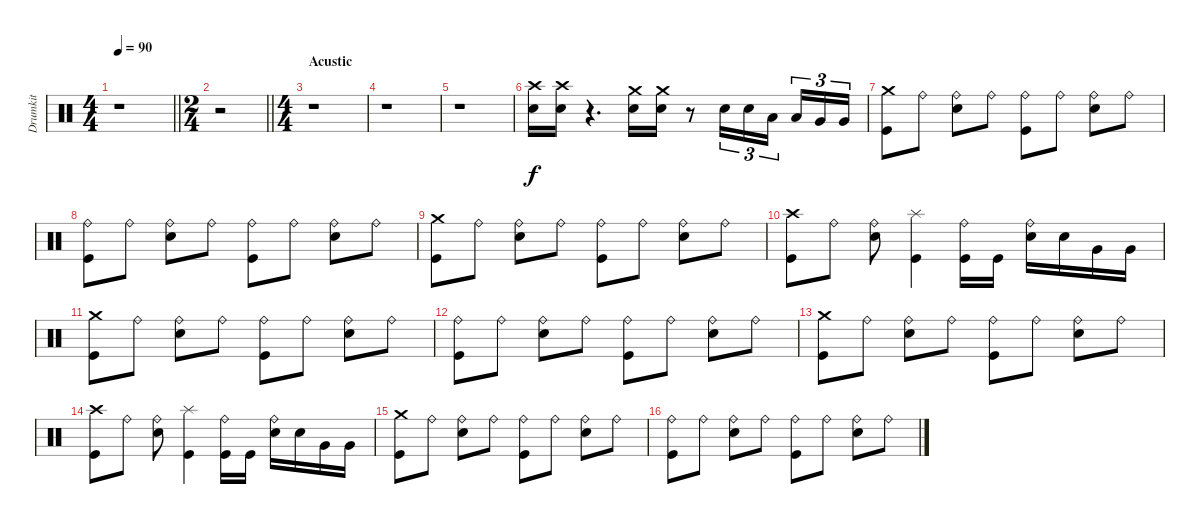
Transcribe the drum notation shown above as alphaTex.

\track ("Drumkit" "Drumkit") {instrument percussion}
\staff {score}
\articulation defaults
\ts (4 4)
\tempo 90
\clef neutral
\barLineRight lightlight
\ks c
r.1{dy f} |
\ts (2 4)
\barLineRight lightlight
r.2 |
\ts (4 4)
\section ("" "Acustic")
r.1 |
r.1 |
r.1 |
("Crash high (hit)" "Snare (hit) 2").16 ("Crash high (hit)" "Snare (hit) 2").16 r.4{d} ("Crash medium (hit)" "Snare (hit) 2").16 ("Crash medium (hit)" "Snare (hit) 2").16 r.8 "Snare (hit) 2".16{tu (3 2)} "Snare (hit) 2".16{tu (3 2)} "Low Tom (hit)".16{tu (3 2)} "Low Tom (hit)".16{tu (3 2)} "Very Low Tom (hit)".16{tu (3 2)} "Very Low Tom (hit)".16{tu (3 2)} |
("Crash medium (hit)" "Kick (hit)").8 "Ride (bell)".8 ("Ride (bell)" "Snare (hit) 2").8 "Ride (bell)".8 ("Ride (bell)" "Kick (hit)").8 "Ride (bell)".8 ("Ride (bell)" "Snare (hit) 2").8 "Ride (bell)".8 |
("Ride (bell)" "Kick (hit)").8 "Ride (bell)".8 ("Ride (bell)" "Snare (hit) 2").8 "Ride (bell)".8 ("Ride (bell)" "Kick (hit)").8 "Ride (bell)".8 ("Ride (bell)" "Snare (hit) 2").8 "Ride (bell)".8 |
("Crash medium (hit)" "Kick (hit)").8 "Ride (bell)".8 ("Ride (bell)" "Snare (hit) 2").8 "Ride (bell)".8 ("Ride (bell)" "Kick (hit)").8 "Ride (bell)".8 ("Ride (bell)" "Snare (hit) 2").8 "Ride (bell)".8 |
("Crash high (hit)" "Kick (hit)").8 "Ride (bell)".8 ("Ride (bell)" "Snare (hit) 2").8 ("Splash (hit)" "Kick (hit)").4 ("Ride (bell)" "Kick (hit)").16 "Kick (hit)".16 ("Ride (bell)" "Snare (hit) 2").16 "Snare (hit) 2".16 "Very Low Tom (hit)".16 "Very Low Tom (hit)".16 |
("Crash medium (hit)" "Kick (hit)").8 "Ride (bell)".8 ("Ride (bell)" "Snare (hit) 2").8 "Ride (bell)".8 ("Ride (bell)" "Kick (hit)").8 "Ride (bell)".8 ("Ride (bell)" "Snare (hit) 2").8 "Ride (bell)".8 |
("Ride (bell)" "Kick (hit)").8 "Ride (bell)".8 ("Ride (bell)" "Snare (hit) 2").8 "Ride (bell)".8 ("Ride (bell)" "Kick (hit)").8 "Ride (bell)".8 ("Ride (bell)" "Snare (hit) 2").8 "Ride (bell)".8 |
("Crash medium (hit)" "Kick (hit)").8 "Ride (bell)".8 ("Ride (bell)" "Snare (hit) 2").8 "Ride (bell)".8 ("Ride (bell)" "Kick (hit)").8 "Ride (bell)".8 ("Ride (bell)" "Snare (hit) 2").8 "Ride (bell)".8 |
("Crash high (hit)" "Kick (hit)").8 "Ride (bell)".8 ("Ride (bell)" "Snare (hit) 2").8 ("Splash (hit)" "Kick (hit)").4 ("Ride (bell)" "Kick (hit)").16 "Kick (hit)".16 ("Ride (bell)" "Snare (hit) 2").16 "Snare (hit) 2".16 "Very Low Tom (hit)".16 "Very Low Tom (hit)".16 |
("Crash medium (hit)" "Kick (hit)").8 "Ride (bell)".8 ("Ride (bell)" "Snare (hit) 2").8 "Ride (bell)".8 ("Ride (bell)" "Kick (hit)").8 "Ride (bell)".8 ("Ride (bell)" "Snare (hit) 2").8 "Ride (bell)".8 |
("Ride (bell)" "Kick (hit)").8 "Ride (bell)".8 ("Ride (bell)" "Snare (hit) 2").8 "Ride (bell)".8 ("Ride (bell)" "Kick (hit)").8 "Ride (bell)".8 ("Ride (bell)" "Snare (hit) 2").8 "Ride (bell)".8
